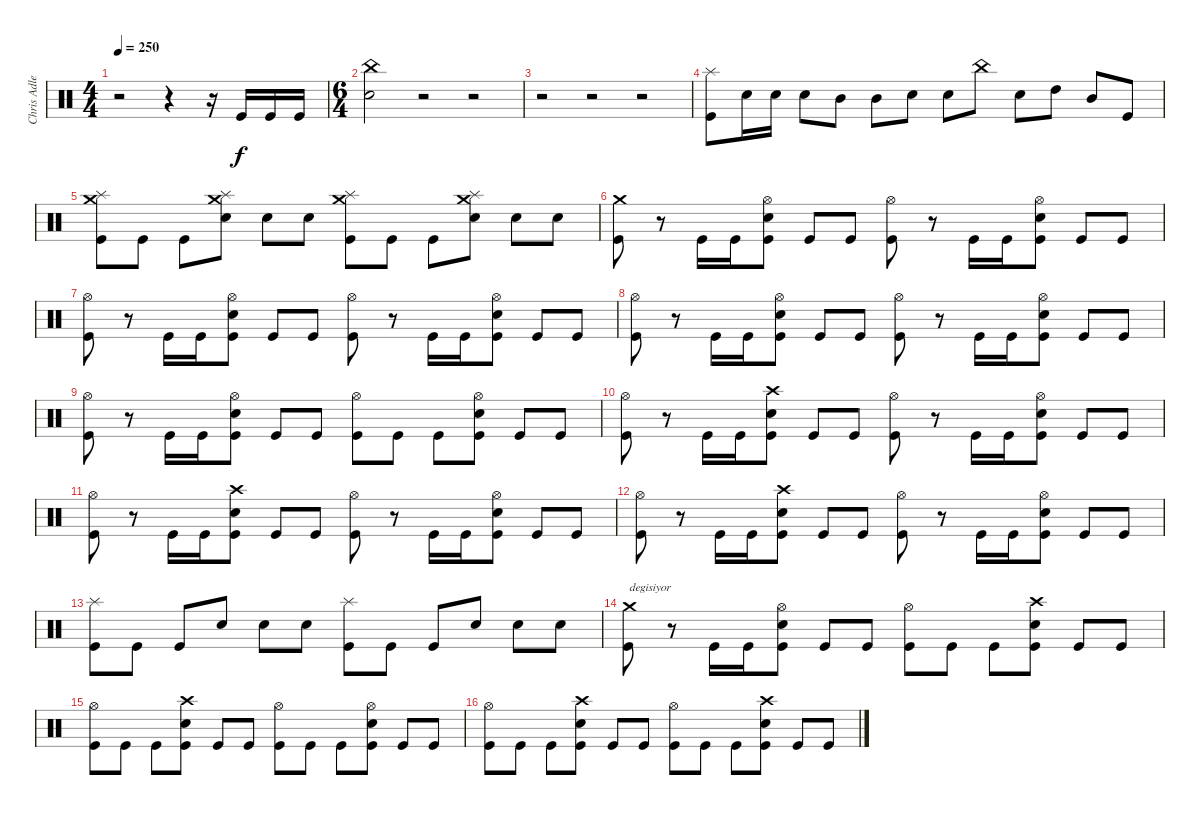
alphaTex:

\track ("Chris Adler" "Chris Adle") {instrument percussion}
\staff {score}
\articulation defaults
\ts (4 4)
\tempo 250
\clef neutral
\ks c
r.2{dy f} r.4 r.16 "Kick (hit)".16 "Kick (hit)".16 "Kick (hit)".16 |
\ts (6 4)
("China (hit)" "Electric Snare (hit)").2 r.2 r.2 |
r.2 r.2 r.2 |
("Splash (hit)" "Kick (hit)").8 "Electric Snare (hit)".16 "Electric Snare (hit)".16 "Electric Snare (hit)".8 "Mid Tom (hit)".8 "Mid Tom (hit)".8 "Electric Snare (hit)".8 "Electric Snare (hit)".8 "China (hit)".8 "Electric Snare (hit)".8 "High Tom (hit)".8 "Mid Tom (hit)".8 "Kick (hit)".8 |
("Crash medium (hit)" "Splash (hit)" "Kick (hit)").8 "Kick (hit)".8 "Kick (hit)".8 ("Crash medium (hit)" "Splash (hit)" "Electric Snare (hit)").8 "Electric Snare (hit)".8 "Electric Snare (hit)".8 ("Crash medium (hit)" "Splash (hit)" "Kick (hit)").8 "Kick (hit)".8 "Kick (hit)".8 ("Crash medium (hit)" "Splash (hit)" "Electric Snare (hit)").8 "Electric Snare (hit)".8 "Electric Snare (hit)".8 |
("Crash medium (hit)" "Kick (hit)").8 r.8 "Kick (hit)".16 "Kick (hit)".16 ("Hi-Hat (open)" "Electric Snare (hit)" "Kick (hit)").8 "Kick (hit)".8 "Kick (hit)".8 ("Hi-Hat (open)" "Kick (hit)").8 r.8 "Kick (hit)".16 "Kick (hit)".16 ("Hi-Hat (open)" "Electric Snare (hit)" "Kick (hit)").8 "Kick (hit)".8 "Kick (hit)".8 |
("Hi-Hat (open)" "Kick (hit)").8 r.8 "Kick (hit)".16 "Kick (hit)".16 ("Hi-Hat (open)" "Electric Snare (hit)" "Kick (hit)").8 "Kick (hit)".8 "Kick (hit)".8 ("Hi-Hat (open)" "Kick (hit)").8 r.8 "Kick (hit)".16 "Kick (hit)".16 ("Hi-Hat (open)" "Electric Snare (hit)" "Kick (hit)").8 "Kick (hit)".8 "Kick (hit)".8 |
("Hi-Hat (open)" "Kick (hit)").8 r.8 "Kick (hit)".16 "Kick (hit)".16 ("Hi-Hat (open)" "Electric Snare (hit)" "Kick (hit)").8 "Kick (hit)".8 "Kick (hit)".8 ("Hi-Hat (open)" "Kick (hit)").8 r.8 "Kick (hit)".16 "Kick (hit)".16 ("Hi-Hat (open)" "Electric Snare (hit)" "Kick (hit)").8 "Kick (hit)".8 "Kick (hit)".8 |
("Hi-Hat (open)" "Kick (hit)").8 r.8 "Kick (hit)".16 "Kick (hit)".16 ("Hi-Hat (open)" "Electric Snare (hit)" "Kick (hit)").8 "Kick (hit)".8 "Kick (hit)".8 ("Hi-Hat (open)" "Kick (hit)").8 "Kick (hit)".8 "Kick (hit)".8 ("Hi-Hat (open)" "Electric Snare (hit)" "Kick (hit)").8 "Kick (hit)".8 "Kick (hit)".8 |
("Hi-Hat (open)" "Kick (hit)").8 r.8 "Kick (hit)".16 "Kick (hit)".16 ("Crash high (hit)" "Electric Snare (hit)" "Kick (hit)").8 "Kick (hit)".8 "Kick (hit)".8 ("Hi-Hat (open)" "Kick (hit)").8 r.8 "Kick (hit)".16 "Kick (hit)".16 ("Hi-Hat (open)" "Electric Snare (hit)" "Kick (hit)").8 "Kick (hit)".8 "Kick (hit)".8 |
("Hi-Hat (open)" "Kick (hit)").8 r.8 "Kick (hit)".16 "Kick (hit)".16 ("Crash high (hit)" "Electric Snare (hit)" "Kick (hit)").8 "Kick (hit)".8 "Kick (hit)".8 ("Hi-Hat (open)" "Kick (hit)").8 r.8 "Kick (hit)".16 "Kick (hit)".16 ("Hi-Hat (open)" "Electric Snare (hit)" "Kick (hit)").8 "Kick (hit)".8 "Kick (hit)".8 |
("Hi-Hat (open)" "Kick (hit)").8 r.8 "Kick (hit)".16 "Kick (hit)".16 ("Crash high (hit)" "Electric Snare (hit)" "Kick (hit)").8 "Kick (hit)".8 "Kick (hit)".8 ("Hi-Hat (open)" "Kick (hit)").8 r.8 "Kick (hit)".16 "Kick (hit)".16 ("Hi-Hat (open)" "Electric Snare (hit)" "Kick (hit)").8 "Kick (hit)".8 "Kick (hit)".8 |
("Splash (hit)" "Kick (hit)").8 "Kick (hit)".8 "Kick (hit)".8 "Electric Snare (hit)".8 "Electric Snare (hit)".8 "Electric Snare (hit)".8 ("Splash (hit)" "Kick (hit)").8 "Kick (hit)".8 "Kick (hit)".8 "Electric Snare (hit)".8 "Electric Snare (hit)".8 "Electric Snare (hit)".8 |
("Crash medium (hit)" "Kick (hit)").8{txt "degisiyor"} r.8 "Kick (hit)".16 "Kick (hit)".16 ("Hi-Hat (open)" "Electric Snare (hit)" "Kick (hit)").8 "Kick (hit)".8 "Kick (hit)".8 ("Hi-Hat (open)" "Kick (hit)").8 "Kick (hit)".8 "Kick (hit)".8 ("Crash high (hit)" "Electric Snare (hit)" "Kick (hit)").8 "Kick (hit)".8 "Kick (hit)".8 |
("Hi-Hat (open)" "Kick (hit)").8 "Kick (hit)".8 "Kick (hit)".8 ("Crash high (hit)" "Electric Snare (hit)" "Kick (hit)").8 "Kick (hit)".8 "Kick (hit)".8 ("Hi-Hat (open)" "Kick (hit)").8 "Kick (hit)".8 "Kick (hit)".8 ("Hi-Hat (open)" "Electric Snare (hit)" "Kick (hit)").8 "Kick (hit)".8 "Kick (hit)".8 |
("Hi-Hat (open)" "Kick (hit)").8 "Kick (hit)".8 "Kick (hit)".8 ("Crash high (hit)" "Electric Snare (hit)" "Kick (hit)").8 "Kick (hit)".8 "Kick (hit)".8 ("Hi-Hat (open)" "Kick (hit)").8 "Kick (hit)".8 "Kick (hit)".8 ("Crash high (hit)" "Electric Snare (hit)" "Kick (hit)").8 "Kick (hit)".8 "Kick (hit)".8
